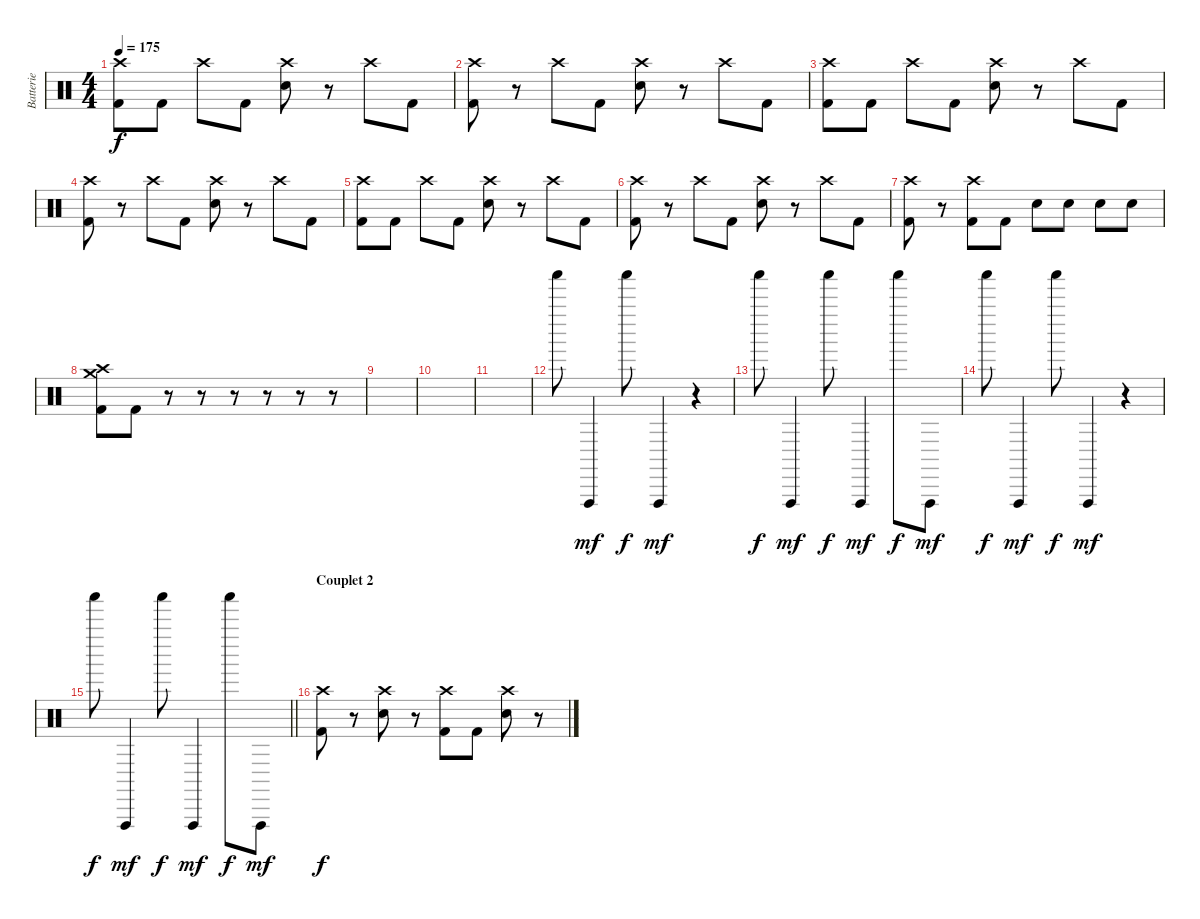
\track ("Batterie" "Batterie") {instrument percussion}
\staff {score}
\articulation defaults
\ts (4 4)
\tempo 175
\clef neutral
\ks c
("Kick (hit) 2" "Crash high (hit)").8{dy f} "Kick (hit) 2".8 "Crash high (hit)".8 "Kick (hit) 2".8 ("Electric Snare (hit)" "Crash high (hit)").8 r.8 "Crash high (hit)".8 "Kick (hit) 2".8 |
("Kick (hit) 2" "Crash high (hit)").8 r.8 "Crash high (hit)".8 "Kick (hit) 2".8 ("Electric Snare (hit)" "Crash high (hit)").8 r.8 "Crash high (hit)".8 "Kick (hit) 2".8 |
("Kick (hit) 2" "Crash high (hit)").8 "Kick (hit) 2".8 "Crash high (hit)".8 "Kick (hit) 2".8 ("Electric Snare (hit)" "Crash high (hit)").8 r.8 "Crash high (hit)".8 "Kick (hit) 2".8 |
("Kick (hit) 2" "Crash high (hit)").8 r.8 "Crash high (hit)".8 "Kick (hit) 2".8 ("Electric Snare (hit)" "Crash high (hit)").8 r.8 "Crash high (hit)".8 "Kick (hit) 2".8 |
("Kick (hit) 2" "Crash high (hit)").8 "Kick (hit) 2".8 "Crash high (hit)".8 "Kick (hit) 2".8 ("Electric Snare (hit)" "Crash high (hit)").8 r.8 "Crash high (hit)".8 "Kick (hit) 2".8 |
("Kick (hit) 2" "Crash high (hit)").8 r.8 "Crash high (hit)".8 "Kick (hit) 2".8 ("Electric Snare (hit)" "Crash high (hit)").8 r.8 "Crash high (hit)".8 "Kick (hit) 2".8 |
("Kick (hit) 2" "Crash high (hit)").8 r.8 ("Kick (hit) 2" "Crash high (hit)").8 "Kick (hit) 2".8 "Electric Snare (hit)".8 "Electric Snare (hit)".8 "Electric Snare (hit)".8 "Electric Snare (hit)".8 |
("Kick (hit) 2" "Crash medium (hit)" "Crash high (hit)").8 "Kick (hit) 2".8 r.8 r.8 r.8 r.8 r.8 r.8 |
|
|
|
"Shaker (hit)".8 "Vibraslap (hit)".4{dy mf} "Shaker (hit)".8{dy f} "Vibraslap (hit)".4{dy mf} r.4 |
"Shaker (hit)".8{dy f} "Vibraslap (hit)".4{dy mf} "Shaker (hit)".8{dy f} "Vibraslap (hit)".4{dy mf} "Shaker (hit)".8{dy f} "Vibraslap (hit)".8{dy mf} |
"Shaker (hit)".8{dy f} "Vibraslap (hit)".4{dy mf} "Shaker (hit)".8{dy f} "Vibraslap (hit)".4{dy mf} r.4 |
\barLineRight lightlight "Shaker (hit)".8{dy f} "Vibraslap (hit)".4{dy mf} "Shaker (hit)".8{dy f} "Vibraslap (hit)".4{dy mf} "Shaker (hit)".8{dy f} "Vibraslap (hit)".8{dy mf}
|
\section ("" "Couplet 2")
("Kick (hit) 2" "Crash high (hit)").8{dy f} r.8 ("Electric Snare (hit)" "Crash high (hit)").8 r.8 ("Kick (hit) 2" "Crash high (hit)").8 "Kick (hit) 2".8 ("Electric Snare (hit)" "Crash high (hit)").8 r.8
